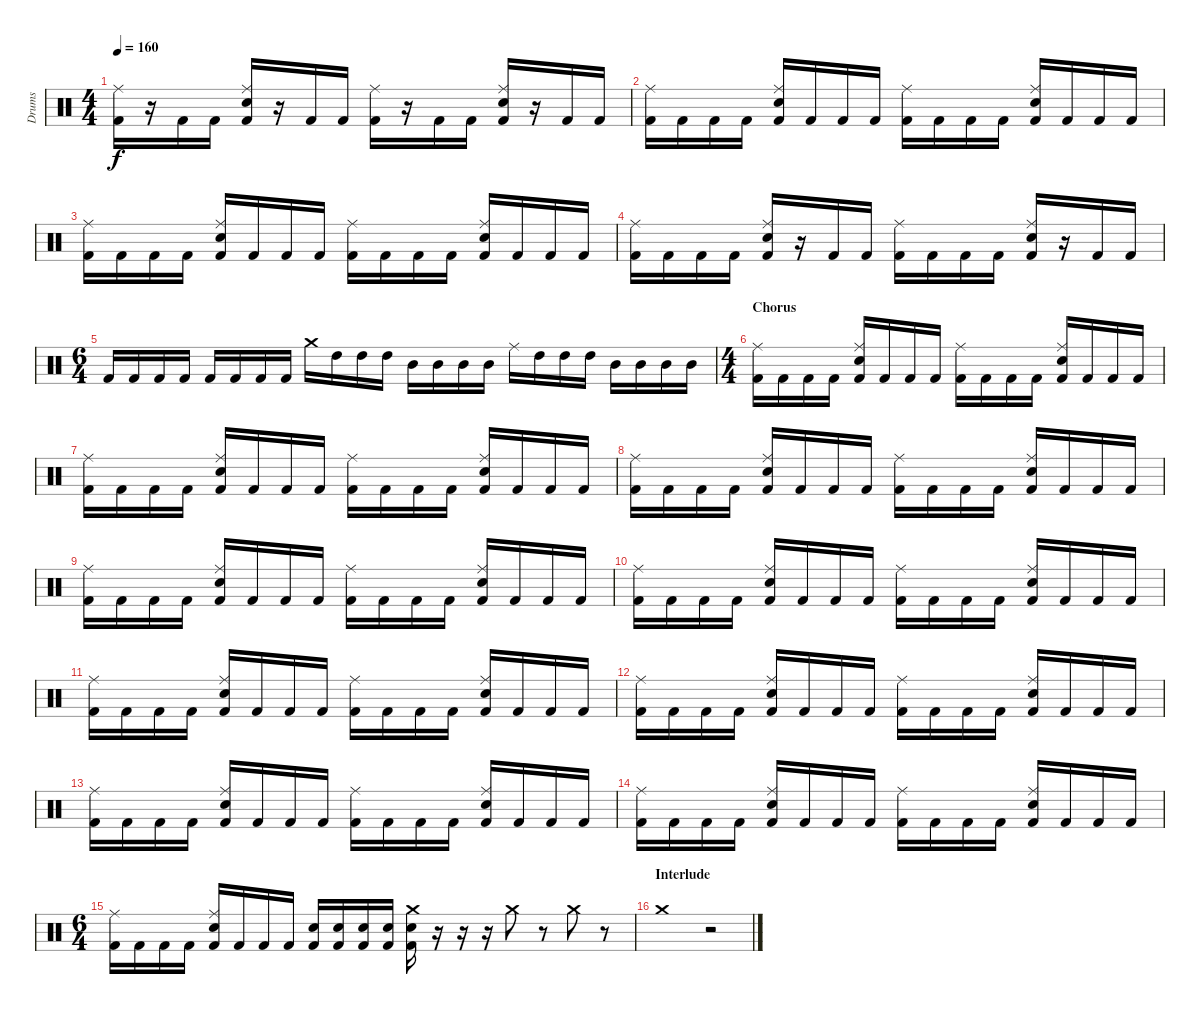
\track ("Drums" "Drums") {instrument percussion}
\staff {score}
\articulation defaults
\ts (4 4)
\tempo 160
\clef neutral
\ks c
("Kick (hit) 2" "Ride (middle)").16{dy f} r.16 "Kick (hit) 2".16 "Kick (hit) 2".16 ("Kick (hit) 2" "Electric Snare (hit)" "Ride (middle)").16 r.16 "Kick (hit) 2".16 "Kick (hit) 2".16 ("Kick (hit) 2" "Ride (middle)").16 r.16 "Kick (hit) 2".16 "Kick (hit) 2".16 ("Kick (hit) 2" "Electric Snare (hit)" "Ride (middle)").16 r.16 "Kick (hit) 2".16 "Kick (hit) 2".16 |
("Kick (hit) 2" "Ride (middle)").16 "Kick (hit) 2".16 "Kick (hit) 2".16 "Kick (hit) 2".16 ("Kick (hit) 2" "Electric Snare (hit)" "Ride (middle)").16 "Kick (hit) 2".16 "Kick (hit) 2".16 "Kick (hit) 2".16 ("Kick (hit) 2" "Ride (middle)").16 "Kick (hit) 2".16 "Kick (hit) 2".16 "Kick (hit) 2".16 ("Kick (hit) 2" "Electric Snare (hit)" "Ride (middle)").16 "Kick (hit) 2".16 "Kick (hit) 2".16 "Kick (hit) 2".16 |
("Kick (hit) 2" "Ride (middle)").16 "Kick (hit) 2".16 "Kick (hit) 2".16 "Kick (hit) 2".16 ("Kick (hit) 2" "Electric Snare (hit)" "Ride (middle)").16 "Kick (hit) 2".16 "Kick (hit) 2".16 "Kick (hit) 2".16 ("Kick (hit) 2" "Ride (middle)").16 "Kick (hit) 2".16 "Kick (hit) 2".16 "Kick (hit) 2".16 ("Kick (hit) 2" "Electric Snare (hit)" "Ride (middle)").16 "Kick (hit) 2".16 "Kick (hit) 2".16 "Kick (hit) 2".16 |
("Kick (hit) 2" "Ride (middle)").16 "Kick (hit) 2".16 "Kick (hit) 2".16 "Kick (hit) 2".16 ("Kick (hit) 2" "Electric Snare (hit)" "Ride (middle)").16 r.16 "Kick (hit) 2".16 "Kick (hit) 2".16 ("Kick (hit) 2" "Ride (middle)").16 "Kick (hit) 2".16 "Kick (hit) 2".16 "Kick (hit) 2".16 ("Kick (hit) 2" "Electric Snare (hit)" "Ride (middle)").16 r.16 "Kick (hit) 2".16 "Kick (hit) 2".16 |
\ts (6 4)
"Kick (hit) 2".16 "Kick (hit) 2".16 "Kick (hit) 2".16 "Kick (hit) 2".16 "Kick (hit) 2".16 "Kick (hit) 2".16 "Kick (hit) 2".16 "Kick (hit) 2".16 "Crash medium (hit)".16 "High Tom (hit)".16 "High Tom (hit)".16 "High Tom (hit)".16 "Mid Tom (hit)".16 "Mid Tom (hit)".16 "Mid Tom (hit)".16 "Mid Tom (hit)".16 "Ride (middle)".16 "High Tom (hit)".16 "High Tom (hit)".16 "High Tom (hit)".16 "Mid Tom (hit)".16 "Mid Tom (hit)".16 "Mid Tom (hit)".16 "Mid Tom (hit)".16 |
\ts (4 4)
\section ("" "Chorus")
("Kick (hit) 2" "Ride (middle)").16 "Kick (hit) 2".16 "Kick (hit) 2".16 "Kick (hit) 2".16 ("Kick (hit) 2" "Electric Snare (hit)" "Ride (middle)").16 "Kick (hit) 2".16 "Kick (hit) 2".16 "Kick (hit) 2".16 ("Kick (hit) 2" "Ride (middle)").16 "Kick (hit) 2".16 "Kick (hit) 2".16 "Kick (hit) 2".16 ("Kick (hit) 2" "Electric Snare (hit)" "Ride (middle)").16 "Kick (hit) 2".16 "Kick (hit) 2".16 "Kick (hit) 2".16 |
("Kick (hit) 2" "Ride (middle)").16 "Kick (hit) 2".16 "Kick (hit) 2".16 "Kick (hit) 2".16 ("Kick (hit) 2" "Electric Snare (hit)" "Ride (middle)").16 "Kick (hit) 2".16 "Kick (hit) 2".16 "Kick (hit) 2".16 ("Kick (hit) 2" "Ride (middle)").16 "Kick (hit) 2".16 "Kick (hit) 2".16 "Kick (hit) 2".16 ("Kick (hit) 2" "Electric Snare (hit)" "Ride (middle)").16 "Kick (hit) 2".16 "Kick (hit) 2".16 "Kick (hit) 2".16 |
("Kick (hit) 2" "Ride (middle)").16 "Kick (hit) 2".16 "Kick (hit) 2".16 "Kick (hit) 2".16 ("Kick (hit) 2" "Electric Snare (hit)" "Ride (middle)").16 "Kick (hit) 2".16 "Kick (hit) 2".16 "Kick (hit) 2".16 ("Kick (hit) 2" "Ride (middle)").16 "Kick (hit) 2".16 "Kick (hit) 2".16 "Kick (hit) 2".16 ("Kick (hit) 2" "Electric Snare (hit)" "Ride (middle)").16 "Kick (hit) 2".16 "Kick (hit) 2".16 "Kick (hit) 2".16 |
("Kick (hit) 2" "Ride (middle)").16 "Kick (hit) 2".16 "Kick (hit) 2".16 "Kick (hit) 2".16 ("Kick (hit) 2" "Electric Snare (hit)" "Ride (middle)").16 "Kick (hit) 2".16 "Kick (hit) 2".16 "Kick (hit) 2".16 ("Kick (hit) 2" "Ride (middle)").16 "Kick (hit) 2".16 "Kick (hit) 2".16 "Kick (hit) 2".16 ("Kick (hit) 2" "Electric Snare (hit)" "Ride (middle)").16 "Kick (hit) 2".16 "Kick (hit) 2".16 "Kick (hit) 2".16 |
("Kick (hit) 2" "Ride (middle)").16 "Kick (hit) 2".16 "Kick (hit) 2".16 "Kick (hit) 2".16 ("Kick (hit) 2" "Electric Snare (hit)" "Ride (middle)").16 "Kick (hit) 2".16 "Kick (hit) 2".16 "Kick (hit) 2".16 ("Kick (hit) 2" "Ride (middle)").16 "Kick (hit) 2".16 "Kick (hit) 2".16 "Kick (hit) 2".16 ("Kick (hit) 2" "Electric Snare (hit)" "Ride (middle)").16 "Kick (hit) 2".16 "Kick (hit) 2".16 "Kick (hit) 2".16 |
("Kick (hit) 2" "Ride (middle)").16 "Kick (hit) 2".16 "Kick (hit) 2".16 "Kick (hit) 2".16 ("Kick (hit) 2" "Electric Snare (hit)" "Ride (middle)").16 "Kick (hit) 2".16 "Kick (hit) 2".16 "Kick (hit) 2".16 ("Kick (hit) 2" "Ride (middle)").16 "Kick (hit) 2".16 "Kick (hit) 2".16 "Kick (hit) 2".16 ("Kick (hit) 2" "Electric Snare (hit)" "Ride (middle)").16 "Kick (hit) 2".16 "Kick (hit) 2".16 "Kick (hit) 2".16 |
("Kick (hit) 2" "Ride (middle)").16 "Kick (hit) 2".16 "Kick (hit) 2".16 "Kick (hit) 2".16 ("Kick (hit) 2" "Electric Snare (hit)" "Ride (middle)").16 "Kick (hit) 2".16 "Kick (hit) 2".16 "Kick (hit) 2".16 ("Kick (hit) 2" "Ride (middle)").16 "Kick (hit) 2".16 "Kick (hit) 2".16 "Kick (hit) 2".16 ("Kick (hit) 2" "Electric Snare (hit)" "Ride (middle)").16 "Kick (hit) 2".16 "Kick (hit) 2".16 "Kick (hit) 2".16 |
("Kick (hit) 2" "Ride (middle)").16 "Kick (hit) 2".16 "Kick (hit) 2".16 "Kick (hit) 2".16 ("Kick (hit) 2" "Electric Snare (hit)" "Ride (middle)").16 "Kick (hit) 2".16 "Kick (hit) 2".16 "Kick (hit) 2".16 ("Kick (hit) 2" "Ride (middle)").16 "Kick (hit) 2".16 "Kick (hit) 2".16 "Kick (hit) 2".16 ("Kick (hit) 2" "Electric Snare (hit)" "Ride (middle)").16 "Kick (hit) 2".16 "Kick (hit) 2".16 "Kick (hit) 2".16 |
("Kick (hit) 2" "Ride (middle)").16 "Kick (hit) 2".16 "Kick (hit) 2".16 "Kick (hit) 2".16 ("Kick (hit) 2" "Electric Snare (hit)" "Ride (middle)").16 "Kick (hit) 2".16 "Kick (hit) 2".16 "Kick (hit) 2".16 ("Kick (hit) 2" "Ride (middle)").16 "Kick (hit) 2".16 "Kick (hit) 2".16 "Kick (hit) 2".16 ("Kick (hit) 2" "Electric Snare (hit)" "Ride (middle)").16 "Kick (hit) 2".16 "Kick (hit) 2".16 "Kick (hit) 2".16 |
\ts (6 4)
("Kick (hit) 2" "Ride (middle)").16 "Kick (hit) 2".16 "Kick (hit) 2".16 "Kick (hit) 2".16 ("Kick (hit) 2" "Electric Snare (hit)" "Ride (middle)").16 "Kick (hit) 2".16 "Kick (hit) 2".16 "Kick (hit) 2".16 ("Kick (hit) 2" "Electric Snare (hit)").16 ("Kick (hit) 2" "Electric Snare (hit)").16 ("Kick (hit) 2" "Electric Snare (hit)").16 ("Kick (hit) 2" "Electric Snare (hit)").16 ("Kick (hit) 2" "Electric Snare (hit)" "Crash medium (hit)").16 r.16 r.16 r.16 "Crash medium (hit)".8 r.8 "Crash medium (hit)".8 r.8 |
\section ("" "Interlude")
"Crash medium (hit)".1 r.2
